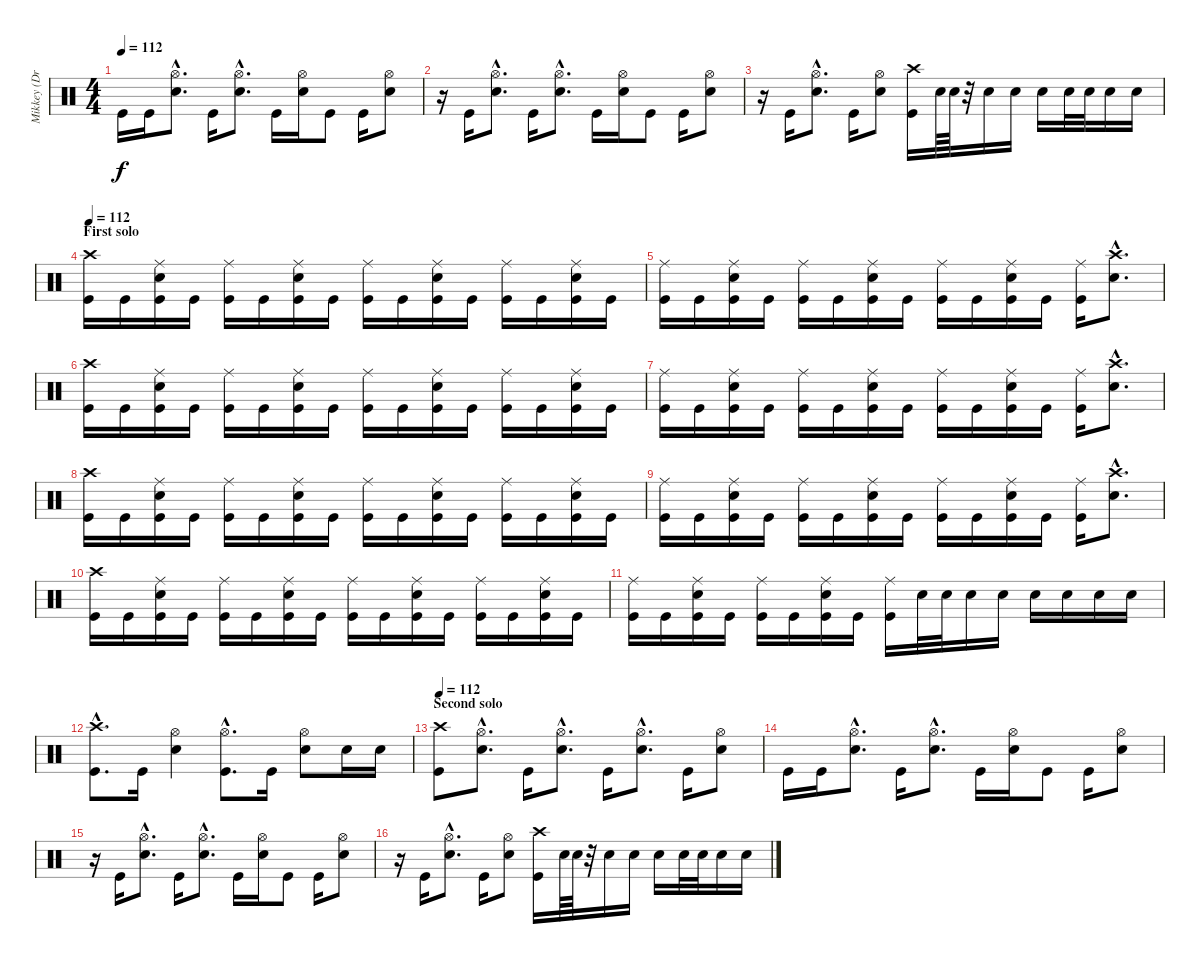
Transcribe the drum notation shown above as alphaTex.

\track ("Mikkey (Drums)" "Mikkey (Dr") {instrument percussion}
\staff {score}
\articulation defaults
\ts (4 4)
\tempo 112
\clef neutral
\ks c "Kick (hit)".16{dy f} "Kick (hit)".16
("Hi-Hat (open)"{hac} "Electric Snare (hit)"{hac}).8{d} "Kick (hit)".16 ("Hi-Hat (open)"{hac} "Electric Snare (hit)"{hac}).8{d} "Kick (hit)".16 ("Hi-Hat (open)" "Electric Snare (hit)").16 "Kick (hit)".8 "Kick (hit)".16 ("Hi-Hat (open)" "Electric Snare (hit)").8 |
r.16 "Kick (hit)".16 ("Hi-Hat (open)"{hac} "Electric Snare (hit)"{hac}).8{d} "Kick (hit)".16 ("Hi-Hat (open)"{hac} "Electric Snare (hit)"{hac}).8{d} "Kick (hit)".16 ("Hi-Hat (open)" "Electric Snare (hit)").16 "Kick (hit)".8 "Kick (hit)".16 ("Hi-Hat (open)" "Electric Snare (hit)").8 |
r.16 "Kick (hit)".16 ("Hi-Hat (open)"{hac} "Electric Snare (hit)"{hac}).8{d} "Kick (hit)".16 ("Hi-Hat (open)" "Electric Snare (hit)").8 ("Crash high (hit)" "Kick (hit)").16 "Electric Snare (hit)".64 "Electric Snare (hit)".64 r.32 "Electric Snare (hit)".16 "Electric Snare (hit)".16 "Electric Snare (hit)".16 "Electric Snare (hit)".32 "Electric Snare (hit)".32 "Electric Snare (hit)".16 "Electric Snare (hit)".16 |
\section ("" "First solo")
\tempo 112
("Crash high (hit)" "Kick (hit)").16 "Kick (hit)".16 ("Ride (middle)" "Electric Snare (hit)" "Kick (hit)").16 "Kick (hit)".16 ("Ride (middle)" "Kick (hit)").16 "Kick (hit)".16 ("Ride (middle)" "Electric Snare (hit)" "Kick (hit)").16 "Kick (hit)".16 ("Ride (middle)" "Kick (hit)").16 "Kick (hit)".16 ("Ride (middle)" "Electric Snare (hit)" "Kick (hit)").16 "Kick (hit)".16 ("Ride (middle)" "Kick (hit)").16 "Kick (hit)".16 ("Ride (middle)" "Electric Snare (hit)" "Kick (hit)").16 "Kick (hit)".16 |
("Ride (middle)" "Kick (hit)").16 "Kick (hit)".16 ("Ride (middle)" "Electric Snare (hit)" "Kick (hit)").16 "Kick (hit)".16 ("Ride (middle)" "Kick (hit)").16 "Kick (hit)".16 ("Ride (middle)" "Electric Snare (hit)" "Kick (hit)").16 "Kick (hit)".16 ("Ride (middle)" "Kick (hit)").16 "Kick (hit)".16 ("Ride (middle)" "Electric Snare (hit)" "Kick (hit)").16 "Kick (hit)".16 ("Ride (middle)" "Kick (hit)").16 ("Crash high (hit)"{hac} "Electric Snare (hit)"{hac}).8{d} |
("Crash high (hit)" "Kick (hit)").16 "Kick (hit)".16 ("Ride (middle)" "Electric Snare (hit)" "Kick (hit)").16 "Kick (hit)".16 ("Ride (middle)" "Kick (hit)").16 "Kick (hit)".16 ("Ride (middle)" "Electric Snare (hit)" "Kick (hit)").16 "Kick (hit)".16 ("Ride (middle)" "Kick (hit)").16 "Kick (hit)".16 ("Ride (middle)" "Electric Snare (hit)" "Kick (hit)").16 "Kick (hit)".16 ("Ride (middle)" "Kick (hit)").16 "Kick (hit)".16 ("Ride (middle)" "Electric Snare (hit)" "Kick (hit)").16 "Kick (hit)".16 |
("Ride (middle)" "Kick (hit)").16 "Kick (hit)".16 ("Ride (middle)" "Electric Snare (hit)" "Kick (hit)").16 "Kick (hit)".16 ("Ride (middle)" "Kick (hit)").16 "Kick (hit)".16 ("Ride (middle)" "Electric Snare (hit)" "Kick (hit)").16 "Kick (hit)".16 ("Ride (middle)" "Kick (hit)").16 "Kick (hit)".16 ("Ride (middle)" "Electric Snare (hit)" "Kick (hit)").16 "Kick (hit)".16 ("Ride (middle)" "Kick (hit)").16 ("Crash high (hit)"{hac} "Electric Snare (hit)"{hac}).8{d} |
("Crash high (hit)" "Kick (hit)").16 "Kick (hit)".16 ("Ride (middle)" "Electric Snare (hit)" "Kick (hit)").16 "Kick (hit)".16 ("Ride (middle)" "Kick (hit)").16 "Kick (hit)".16 ("Ride (middle)" "Electric Snare (hit)" "Kick (hit)").16 "Kick (hit)".16 ("Ride (middle)" "Kick (hit)").16 "Kick (hit)".16 ("Ride (middle)" "Electric Snare (hit)" "Kick (hit)").16 "Kick (hit)".16 ("Ride (middle)" "Kick (hit)").16 "Kick (hit)".16 ("Ride (middle)" "Electric Snare (hit)" "Kick (hit)").16 "Kick (hit)".16 |
("Ride (middle)" "Kick (hit)").16 "Kick (hit)".16 ("Ride (middle)" "Electric Snare (hit)" "Kick (hit)").16 "Kick (hit)".16 ("Ride (middle)" "Kick (hit)").16 "Kick (hit)".16 ("Ride (middle)" "Electric Snare (hit)" "Kick (hit)").16 "Kick (hit)".16 ("Ride (middle)" "Kick (hit)").16 "Kick (hit)".16 ("Ride (middle)" "Electric Snare (hit)" "Kick (hit)").16 "Kick (hit)".16 ("Ride (middle)" "Kick (hit)").16 ("Crash high (hit)"{hac} "Electric Snare (hit)"{hac}).8{d} |
("Crash high (hit)" "Kick (hit)").16 "Kick (hit)".16 ("Ride (middle)" "Electric Snare (hit)" "Kick (hit)").16 "Kick (hit)".16 ("Ride (middle)" "Kick (hit)").16 "Kick (hit)".16 ("Ride (middle)" "Electric Snare (hit)" "Kick (hit)").16 "Kick (hit)".16 ("Ride (middle)" "Kick (hit)").16 "Kick (hit)".16 ("Ride (middle)" "Electric Snare (hit)" "Kick (hit)").16 "Kick (hit)".16 ("Ride (middle)" "Kick (hit)").16 "Kick (hit)".16 ("Ride (middle)" "Electric Snare (hit)" "Kick (hit)").16 "Kick (hit)".16 |
("Ride (middle)" "Kick (hit)").16 "Kick (hit)".16 ("Ride (middle)" "Electric Snare (hit)" "Kick (hit)").16 "Kick (hit)".16 ("Ride (middle)" "Kick (hit)").16 "Kick (hit)".16 ("Ride (middle)" "Electric Snare (hit)" "Kick (hit)").16 "Kick (hit)".16 ("Ride (middle)" "Kick (hit)").16 "Electric Snare (hit)".32 "Electric Snare (hit)".32 "Electric Snare (hit)".16 "Electric Snare (hit)".16 "Electric Snare (hit)".16 "Electric Snare (hit)".16 "Electric Snare (hit)".16 "Electric Snare (hit)".16 |
("Crash high (hit)"{hac} "Kick (hit)"{hac}).8{d} "Kick (hit)".16 ("Hi-Hat (open)" "Electric Snare (hit)").4 ("Hi-Hat (open)"{hac} "Kick (hit)"{hac}).8{d} "Kick (hit)".16 ("Hi-Hat (open)" "Electric Snare (hit)").8 "Electric Snare (hit)".16 "Electric Snare (hit)".16 |
\section ("" "Second solo")
\tempo 112
("Crash high (hit)" "Kick (hit)").8 ("Hi-Hat (open)"{hac} "Electric Snare (hit)"{hac}).8{d} "Kick (hit)".16 ("Hi-Hat (open)"{hac} "Electric Snare (hit)"{hac}).8{d} "Kick (hit)".16 ("Hi-Hat (open)"{hac} "Electric Snare (hit)"{hac}).8{d} "Kick (hit)".16 ("Hi-Hat (open)" "Electric Snare (hit)").8 |
"Kick (hit)".16 "Kick (hit)".16 ("Hi-Hat (open)"{hac} "Electric Snare (hit)"{hac}).8{d} "Kick (hit)".16 ("Hi-Hat (open)"{hac} "Electric Snare (hit)"{hac}).8{d} "Kick (hit)".16 ("Hi-Hat (open)" "Electric Snare (hit)").16 "Kick (hit)".8 "Kick (hit)".16 ("Hi-Hat (open)" "Electric Snare (hit)").8 |
r.16 "Kick (hit)".16 ("Hi-Hat (open)"{hac} "Electric Snare (hit)"{hac}).8{d} "Kick (hit)".16 ("Hi-Hat (open)"{hac} "Electric Snare (hit)"{hac}).8{d} "Kick (hit)".16 ("Hi-Hat (open)" "Electric Snare (hit)").16 "Kick (hit)".8 "Kick (hit)".16 ("Hi-Hat (open)" "Electric Snare (hit)").8 |
r.16 "Kick (hit)".16 ("Hi-Hat (open)"{hac} "Electric Snare (hit)"{hac}).8{d} "Kick (hit)".16 ("Hi-Hat (open)" "Electric Snare (hit)").8 ("Crash high (hit)" "Kick (hit)").16 "Electric Snare (hit)".64 "Electric Snare (hit)".64 r.32 "Electric Snare (hit)".16 "Electric Snare (hit)".16 "Electric Snare (hit)".16 "Electric Snare (hit)".32 "Electric Snare (hit)".32 "Electric Snare (hit)".16 "Electric Snare (hit)".16
